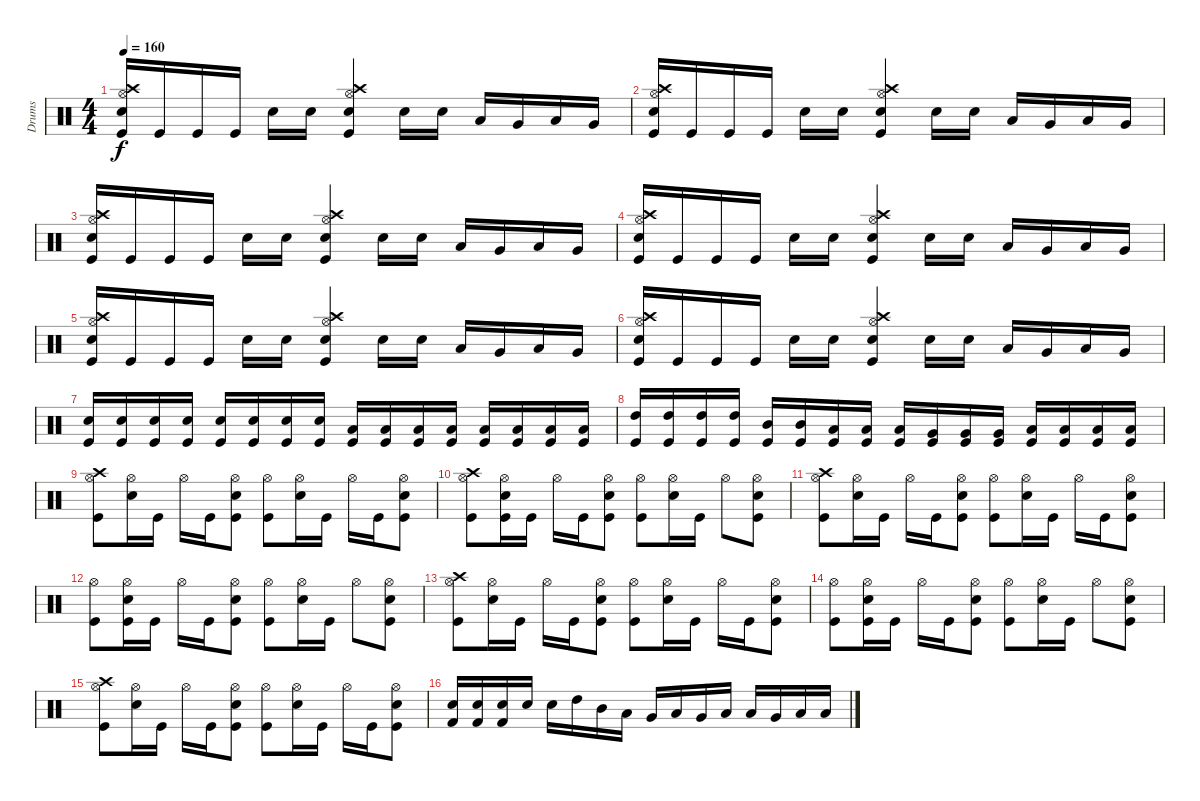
\track ("Drums" "Drums") {instrument percussion}
\staff {score}
\articulation defaults
\ts (4 4)
\tempo 160
\clef neutral
\ks c
("Electric Snare (hit)" "Crash high (hit)" "Hi-Hat (open)" "Kick (hit)").16{dy f} "Kick (hit)".16 "Kick (hit)".16 "Kick (hit)".16 "Electric Snare (hit)".16 "Electric Snare (hit)".16 ("Electric Snare (hit)" "Crash high (hit)" "Hi-Hat (open)" "Kick (hit)").4 "Electric Snare (hit)".16 "Electric Snare (hit)".16 "Low Tom (hit)".16 "Very Low Tom (hit)".16 "Low Floor Tom (hit)".16 "Very Low Tom (hit)".16 |
("Electric Snare (hit)" "Crash high (hit)" "Hi-Hat (open)" "Kick (hit)").16 "Kick (hit)".16 "Kick (hit)".16 "Kick (hit)".16 "Electric Snare (hit)".16 "Electric Snare (hit)".16 ("Electric Snare (hit)" "Crash high (hit)" "Hi-Hat (open)" "Kick (hit)").4 "Electric Snare (hit)".16 "Electric Snare (hit)".16 "Low Tom (hit)".16 "Very Low Tom (hit)".16 "Low Floor Tom (hit)".16 "Very Low Tom (hit)".16 |
("Electric Snare (hit)" "Crash high (hit)" "Hi-Hat (open)" "Kick (hit)").16 "Kick (hit)".16 "Kick (hit)".16 "Kick (hit)".16 "Electric Snare (hit)".16 "Electric Snare (hit)".16 ("Electric Snare (hit)" "Crash high (hit)" "Hi-Hat (open)" "Kick (hit)").4 "Electric Snare (hit)".16 "Electric Snare (hit)".16 "Low Tom (hit)".16 "Very Low Tom (hit)".16 "Low Floor Tom (hit)".16 "Very Low Tom (hit)".16 |
("Electric Snare (hit)" "Crash high (hit)" "Hi-Hat (open)" "Kick (hit)").16 "Kick (hit)".16 "Kick (hit)".16 "Kick (hit)".16 "Electric Snare (hit)".16 "Electric Snare (hit)".16 ("Electric Snare (hit)" "Crash high (hit)" "Hi-Hat (open)" "Kick (hit)").4 "Electric Snare (hit)".16 "Electric Snare (hit)".16 "Low Tom (hit)".16 "Very Low Tom (hit)".16 "Low Floor Tom (hit)".16 "Very Low Tom (hit)".16 |
("Electric Snare (hit)" "Crash high (hit)" "Hi-Hat (open)" "Kick (hit)").16 "Kick (hit)".16 "Kick (hit)".16 "Kick (hit)".16 "Electric Snare (hit)".16 "Electric Snare (hit)".16 ("Electric Snare (hit)" "Crash high (hit)" "Hi-Hat (open)" "Kick (hit)").4 "Electric Snare (hit)".16 "Electric Snare (hit)".16 "Low Tom (hit)".16 "Very Low Tom (hit)".16 "Low Floor Tom (hit)".16 "Very Low Tom (hit)".16 |
("Electric Snare (hit)" "Crash high (hit)" "Hi-Hat (open)" "Kick (hit)").16 "Kick (hit)".16 "Kick (hit)".16 "Kick (hit)".16 "Electric Snare (hit)".16 "Electric Snare (hit)".16 ("Electric Snare (hit)" "Crash high (hit)" "Hi-Hat (open)" "Kick (hit)").4 "Electric Snare (hit)".16 "Electric Snare (hit)".16 "Low Tom (hit)".16 "Very Low Tom (hit)".16 "Low Floor Tom (hit)".16 "Very Low Tom (hit)".16 |
("Electric Snare (hit)" "Kick (hit)").16 ("Electric Snare (hit)" "Kick (hit)").16 ("Electric Snare (hit)" "Kick (hit)").16 ("Electric Snare (hit)" "Kick (hit)").16 ("Electric Snare (hit)" "Kick (hit)").16 ("Electric Snare (hit)" "Kick (hit)").16 ("Electric Snare (hit)" "Kick (hit)").16 ("Electric Snare (hit)" "Kick (hit)").16 ("Low Tom (hit)" "Kick (hit)").16 ("Low Tom (hit)" "Kick (hit)").16 ("Low Tom (hit)" "Kick (hit)").16 ("Low Tom (hit)" "Kick (hit)").16 ("Low Tom (hit)" "Kick (hit)").16 ("Low Tom (hit)" "Kick (hit)").16 ("Low Tom (hit)" "Kick (hit)").16 ("Low Tom (hit)" "Kick (hit)").16 |
("Kick (hit)" "High Tom (hit)").16 ("Kick (hit)" "High Tom (hit)").16 ("Kick (hit)" "High Tom (hit)").16 ("Kick (hit)" "High Tom (hit)").16 ("Kick (hit)" "Mid Tom (hit)").16 ("Kick (hit)" "Mid Tom (hit)").16 ("Kick (hit)" "Low Tom (hit)").16 ("Kick (hit)" "Low Tom (hit)").16 ("Kick (hit)" "Low Tom (hit)").16 ("Kick (hit)" "Very Low Tom (hit)").16 ("Kick (hit)" "Very Low Tom (hit)").16 ("Kick (hit)" "Very Low Tom (hit)").16 ("Kick (hit)" "Low Floor Tom (hit)").16 ("Kick (hit)" "Low Floor Tom (hit)").16 ("Kick (hit)" "Low Floor Tom (hit)").16 ("Kick (hit)" "Low Floor Tom (hit)").16 |
("Crash high (hit)" "Hi-Hat (open)" "Kick (hit)").8 ("Hi-Hat (open)" "Electric Snare (hit)").16 "Kick (hit)".16 "Hi-Hat (open)".16 "Kick (hit)".16 ("Hi-Hat (open)" "Electric Snare (hit)" "Kick (hit)").8 ("Hi-Hat (open)" "Kick (hit)").8 ("Hi-Hat (open)" "Electric Snare (hit)").16 "Kick (hit)".16 "Hi-Hat (open)".16 "Kick (hit)".16 ("Hi-Hat (open)" "Electric Snare (hit)" "Kick (hit)").8 |
("Crash high (hit)" "Hi-Hat (open)" "Kick (hit)").8 ("Hi-Hat (open)" "Electric Snare (hit)" "Kick (hit)").16 "Kick (hit)".16 "Hi-Hat (open)".16 "Kick (hit)".16 ("Hi-Hat (open)" "Electric Snare (hit)" "Kick (hit)").8 ("Hi-Hat (open)" "Kick (hit)").8 ("Hi-Hat (open)" "Electric Snare (hit)").16 "Kick (hit)".16 "Hi-Hat (open)".8 ("Hi-Hat (open)" "Electric Snare (hit)" "Kick (hit)").8 |
("Crash high (hit)" "Hi-Hat (open)" "Kick (hit)").8 ("Hi-Hat (open)" "Electric Snare (hit)").16 "Kick (hit)".16 "Hi-Hat (open)".16 "Kick (hit)".16 ("Hi-Hat (open)" "Electric Snare (hit)" "Kick (hit)").8 ("Hi-Hat (open)" "Kick (hit)").8 ("Hi-Hat (open)" "Electric Snare (hit)").16 "Kick (hit)".16 "Hi-Hat (open)".16 "Kick (hit)".16 ("Hi-Hat (open)" "Electric Snare (hit)" "Kick (hit)").8 |
("Hi-Hat (open)" "Kick (hit)").8 ("Hi-Hat (open)" "Electric Snare (hit)" "Kick (hit)").16 "Kick (hit)".16 "Hi-Hat (open)".16 "Kick (hit)".16 ("Hi-Hat (open)" "Electric Snare (hit)" "Kick (hit)").8 ("Hi-Hat (open)" "Kick (hit)").8 ("Hi-Hat (open)" "Electric Snare (hit)").16 "Kick (hit)".16 "Hi-Hat (open)".8 ("Hi-Hat (open)" "Electric Snare (hit)" "Kick (hit)").8 |
("Crash high (hit)" "Hi-Hat (open)" "Kick (hit)").8 ("Hi-Hat (open)" "Electric Snare (hit)").16 "Kick (hit)".16 "Hi-Hat (open)".16 "Kick (hit)".16 ("Hi-Hat (open)" "Electric Snare (hit)" "Kick (hit)").8 ("Hi-Hat (open)" "Kick (hit)").8 ("Hi-Hat (open)" "Electric Snare (hit)").16 "Kick (hit)".16 "Hi-Hat (open)".16 "Kick (hit)".16 ("Hi-Hat (open)" "Electric Snare (hit)" "Kick (hit)").8 |
("Hi-Hat (open)" "Kick (hit)").8 ("Hi-Hat (open)" "Electric Snare (hit)" "Kick (hit)").16 "Kick (hit)".16 "Hi-Hat (open)".16 "Kick (hit)".16 ("Hi-Hat (open)" "Electric Snare (hit)" "Kick (hit)").8 ("Hi-Hat (open)" "Kick (hit)").8 ("Hi-Hat (open)" "Electric Snare (hit)").16 "Kick (hit)".16 "Hi-Hat (open)".8 ("Hi-Hat (open)" "Electric Snare (hit)" "Kick (hit)").8 |
("Crash high (hit)" "Hi-Hat (open)" "Kick (hit)").8 ("Hi-Hat (open)" "Electric Snare (hit)").16 "Kick (hit)".16 "Hi-Hat (open)".16 "Kick (hit)".16 ("Hi-Hat (open)" "Electric Snare (hit)" "Kick (hit)").8 ("Hi-Hat (open)" "Kick (hit)").8 ("Hi-Hat (open)" "Electric Snare (hit)").16 "Kick (hit)".16 "Hi-Hat (open)".16 "Kick (hit)".16 ("Hi-Hat (open)" "Electric Snare (hit)" "Kick (hit)").8 |
("Snare (hit) 2" "Kick (hit) 2").16 ("Electric Snare (hit)" "Kick (hit) 2").16 ("Electric Snare (hit)" "Kick (hit) 2").16 "Snare (hit) 2".16 "Snare (hit) 2".16 "High Tom (hit)".16 "Mid Tom (hit)".16 "Low Tom (hit)".16 "Very Low Tom (hit)".16 "Low Tom (hit)".16 "Very Low Tom (hit)".16 "Low Floor Tom (hit)".16 "Low Tom (hit)".16 "Very Low Tom (hit)".16 "Low Floor Tom (hit)".16 "Low Floor Tom (hit)".16
